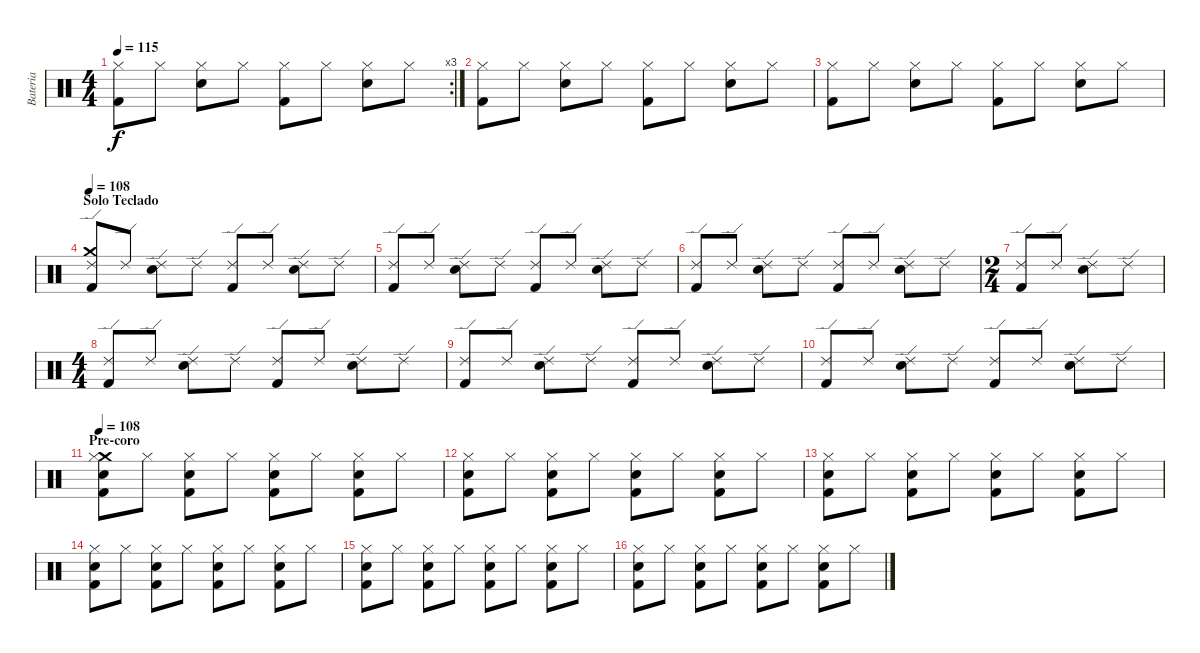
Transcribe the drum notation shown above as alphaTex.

\track ("Bateria" "Bateria") {instrument percussion}
\staff {score}
\articulation defaults
\rc 3
\ts (4 4)
\tempo 115
\clef neutral
\ks c
("Hi-Hat (closed)" "Kick (hit) 2").8{dy f} "Hi-Hat (closed)".8 ("Hi-Hat (closed)" "Electric Snare (hit)").8 "Hi-Hat (closed)".8 ("Hi-Hat (closed)" "Kick (hit) 2").8 "Hi-Hat (closed)".8 ("Hi-Hat (closed)" "Electric Snare (hit)").8 "Hi-Hat (closed)".8 |
("Hi-Hat (closed)" "Kick (hit) 2").8 "Hi-Hat (closed)".8 ("Hi-Hat (closed)" "Electric Snare (hit)").8 "Hi-Hat (closed)".8 ("Hi-Hat (closed)" "Kick (hit) 2").8 "Hi-Hat (closed)".8 ("Hi-Hat (closed)" "Electric Snare (hit)").8 "Hi-Hat (closed)".8 |
("Hi-Hat (closed)" "Kick (hit) 2").8 "Hi-Hat (closed)".8 ("Hi-Hat (closed)" "Electric Snare (hit)").8 "Hi-Hat (closed)".8 ("Hi-Hat (closed)" "Kick (hit) 2").8 "Hi-Hat (closed)".8 ("Hi-Hat (closed)" "Electric Snare (hit)").8 "Hi-Hat (closed)".8 |
\section ("" "Solo Teclado")
\tempo 108
("Crash medium (hit)" "Ride (edge) 2" "Kick (hit) 2").8 "Ride (edge) 2".8 ("Ride (edge) 2" "Electric Snare (hit)").8 "Ride (edge) 2".8 ("Ride (edge) 2" "Kick (hit) 2").8 "Ride (edge) 2".8 ("Ride (edge) 2" "Electric Snare (hit)").8 "Ride (edge) 2".8 |
("Ride (edge) 2" "Kick (hit) 2").8 "Ride (edge) 2".8 ("Ride (edge) 2" "Electric Snare (hit)").8 "Ride (edge) 2".8 ("Ride (edge) 2" "Kick (hit) 2").8 "Ride (edge) 2".8 ("Ride (edge) 2" "Electric Snare (hit)").8 "Ride (edge) 2".8 |
("Ride (edge) 2" "Kick (hit) 2").8 "Ride (edge) 2".8 ("Ride (edge) 2" "Electric Snare (hit)").8 "Ride (edge) 2".8 ("Ride (edge) 2" "Kick (hit) 2").8 "Ride (edge) 2".8 ("Ride (edge) 2" "Electric Snare (hit)").8 "Ride (edge) 2".8 |
\ts (2 4)
("Ride (edge) 2" "Kick (hit) 2").8 "Ride (edge) 2".8 ("Ride (edge) 2" "Electric Snare (hit)").8 "Ride (edge) 2".8 |
\ts (4 4)
("Ride (edge) 2" "Kick (hit) 2").8 "Ride (edge) 2".8 ("Ride (edge) 2" "Electric Snare (hit)").8 "Ride (edge) 2".8 ("Ride (edge) 2" "Kick (hit) 2").8 "Ride (edge) 2".8 ("Ride (edge) 2" "Electric Snare (hit)").8 "Ride (edge) 2".8 |
("Ride (edge) 2" "Kick (hit) 2").8 "Ride (edge) 2".8 ("Ride (edge) 2" "Electric Snare (hit)").8 "Ride (edge) 2".8 ("Ride (edge) 2" "Kick (hit) 2").8 "Ride (edge) 2".8 ("Ride (edge) 2" "Electric Snare (hit)").8 "Ride (edge) 2".8 |
("Ride (edge) 2" "Kick (hit) 2").8 "Ride (edge) 2".8 ("Ride (edge) 2" "Electric Snare (hit)").8 "Ride (edge) 2".8 ("Ride (edge) 2" "Kick (hit) 2").8 "Ride (edge) 2".8 ("Ride (edge) 2" "Electric Snare (hit)").8 "Ride (edge) 2".8 |
\section ("" "Pre-coro")
\tempo 108
("Crash medium (hit)" "Hi-Hat (closed)" "Electric Snare (hit)" "Kick (hit) 2").8 "Hi-Hat (closed)".8 ("Hi-Hat (closed)" "Electric Snare (hit)" "Kick (hit) 2").8 "Hi-Hat (closed)".8 ("Hi-Hat (closed)" "Electric Snare (hit)" "Kick (hit) 2").8 "Hi-Hat (closed)".8 ("Hi-Hat (closed)" "Electric Snare (hit)" "Kick (hit) 2").8 "Hi-Hat (closed)".8 |
("Hi-Hat (closed)" "Electric Snare (hit)" "Kick (hit) 2").8 "Hi-Hat (closed)".8 ("Hi-Hat (closed)" "Electric Snare (hit)" "Kick (hit) 2").8 "Hi-Hat (closed)".8 ("Hi-Hat (closed)" "Electric Snare (hit)" "Kick (hit) 2").8 "Hi-Hat (closed)".8 ("Hi-Hat (closed)" "Electric Snare (hit)" "Kick (hit) 2").8 "Hi-Hat (closed)".8 |
("Hi-Hat (closed)" "Electric Snare (hit)" "Kick (hit) 2").8 "Hi-Hat (closed)".8 ("Hi-Hat (closed)" "Electric Snare (hit)" "Kick (hit) 2").8 "Hi-Hat (closed)".8 ("Hi-Hat (closed)" "Electric Snare (hit)" "Kick (hit) 2").8 "Hi-Hat (closed)".8 ("Hi-Hat (closed)" "Electric Snare (hit)" "Kick (hit) 2").8 "Hi-Hat (closed)".8 |
("Hi-Hat (closed)" "Electric Snare (hit)" "Kick (hit) 2").8 "Hi-Hat (closed)".8 ("Hi-Hat (closed)" "Electric Snare (hit)" "Kick (hit) 2").8 "Hi-Hat (closed)".8 ("Hi-Hat (closed)" "Electric Snare (hit)" "Kick (hit) 2").8 "Hi-Hat (closed)".8 ("Hi-Hat (closed)" "Electric Snare (hit)" "Kick (hit) 2").8 "Hi-Hat (closed)".8 |
("Hi-Hat (closed)" "Electric Snare (hit)" "Kick (hit) 2").8 "Hi-Hat (closed)".8 ("Hi-Hat (closed)" "Electric Snare (hit)" "Kick (hit) 2").8 "Hi-Hat (closed)".8 ("Hi-Hat (closed)" "Electric Snare (hit)" "Kick (hit) 2").8 "Hi-Hat (closed)".8 ("Hi-Hat (closed)" "Electric Snare (hit)" "Kick (hit) 2").8 "Hi-Hat (closed)".8 |
("Hi-Hat (closed)" "Electric Snare (hit)" "Kick (hit) 2").8 "Hi-Hat (closed)".8 ("Hi-Hat (closed)" "Electric Snare (hit)" "Kick (hit) 2").8 "Hi-Hat (closed)".8 ("Hi-Hat (closed)" "Electric Snare (hit)" "Kick (hit) 2").8 "Hi-Hat (closed)".8 ("Hi-Hat (closed)" "Electric Snare (hit)" "Kick (hit) 2").8 "Hi-Hat (closed)".8
